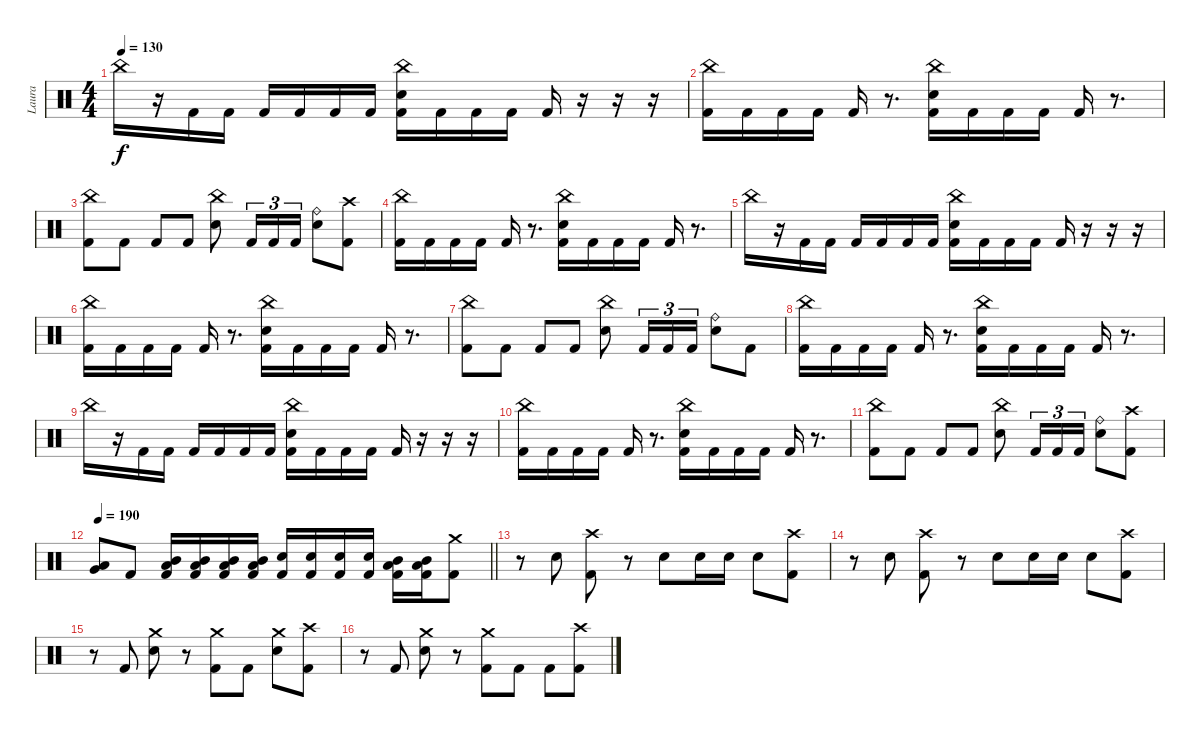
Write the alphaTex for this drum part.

\track ("Laura" "Laura") {instrument percussion}
\staff {score}
\articulation defaults
\ts (4 4)
\tempo 130
\clef neutral
\ks c "China (hit)".16{dy f}
r.16 "Kick (hit) 2".16 "Kick (hit) 2".16 "Kick (hit) 2".16 "Kick (hit) 2".16 "Kick (hit) 2".16 "Kick (hit) 2".16 ("China (hit)" "Electric Snare (hit)" "Kick (hit) 2").16 "Kick (hit) 2".16 "Kick (hit) 2".16 "Kick (hit) 2".16 "Kick (hit) 2".16 r.16 r.16 r.16 |
("China (hit)" "Kick (hit) 2").16 "Kick (hit) 2".16 "Kick (hit) 2".16 "Kick (hit) 2".16 "Kick (hit) 2".16 r.8{d} ("China (hit)" "Electric Snare (hit)" "Kick (hit) 2").16 "Kick (hit) 2".16 "Kick (hit) 2".16 "Kick (hit) 2".16 "Kick (hit) 2".16 r.8{d} |
("China (hit)" "Kick (hit) 2").8 "Kick (hit) 2".8 "Kick (hit) 2".8 "Kick (hit) 2".8 ("China (hit)" "Electric Snare (hit)").8 "Kick (hit) 2".16{tu (3 2)} "Kick (hit) 2".16{tu (3 2)} "Kick (hit) 2".16{tu (3 2)} ("Ride (bell)" "Electric Snare (hit)").8 ("Crash high (hit)" "Kick (hit) 2").8 |
("China (hit)" "Kick (hit) 2").16 "Kick (hit) 2".16 "Kick (hit) 2".16 "Kick (hit) 2".16 "Kick (hit) 2".16 r.8{d} ("China (hit)" "Electric Snare (hit)" "Kick (hit) 2").16 "Kick (hit) 2".16 "Kick (hit) 2".16 "Kick (hit) 2".16 "Kick (hit) 2".16 r.8{d} |
"China (hit)".16 r.16 "Kick (hit) 2".16 "Kick (hit) 2".16 "Kick (hit) 2".16 "Kick (hit) 2".16 "Kick (hit) 2".16 "Kick (hit) 2".16 ("China (hit)" "Electric Snare (hit)" "Kick (hit) 2").16 "Kick (hit) 2".16 "Kick (hit) 2".16 "Kick (hit) 2".16 "Kick (hit) 2".16 r.16 r.16 r.16 |
("China (hit)" "Kick (hit) 2").16 "Kick (hit) 2".16 "Kick (hit) 2".16 "Kick (hit) 2".16 "Kick (hit) 2".16 r.8{d} ("China (hit)" "Electric Snare (hit)" "Kick (hit) 2").16 "Kick (hit) 2".16 "Kick (hit) 2".16 "Kick (hit) 2".16 "Kick (hit) 2".16 r.8{d} |
("China (hit)" "Kick (hit) 2").8 "Kick (hit) 2".8 "Kick (hit) 2".8 "Kick (hit) 2".8 ("China (hit)" "Electric Snare (hit)").8 "Kick (hit) 2".16{tu (3 2)} "Kick (hit) 2".16{tu (3 2)} "Kick (hit) 2".16{tu (3 2)} ("Ride (bell)" "Electric Snare (hit)").8 "Kick (hit) 2".8 |
("China (hit)" "Kick (hit) 2").16 "Kick (hit) 2".16 "Kick (hit) 2".16 "Kick (hit) 2".16 "Kick (hit) 2".16 r.8{d} ("China (hit)" "Electric Snare (hit)" "Kick (hit) 2").16 "Kick (hit) 2".16 "Kick (hit) 2".16 "Kick (hit) 2".16 "Kick (hit) 2".16 r.8{d} |
"China (hit)".16 r.16 "Kick (hit) 2".16 "Kick (hit) 2".16 "Kick (hit) 2".16 "Kick (hit) 2".16 "Kick (hit) 2".16 "Kick (hit) 2".16 ("China (hit)" "Electric Snare (hit)" "Kick (hit) 2").16 "Kick (hit) 2".16 "Kick (hit) 2".16 "Kick (hit) 2".16 "Kick (hit) 2".16 r.16 r.16 r.16 |
("China (hit)" "Kick (hit) 2").16 "Kick (hit) 2".16 "Kick (hit) 2".16 "Kick (hit) 2".16 "Kick (hit) 2".16 r.8{d} ("China (hit)" "Electric Snare (hit)" "Kick (hit) 2").16 "Kick (hit) 2".16 "Kick (hit) 2".16 "Kick (hit) 2".16 "Kick (hit) 2".16 r.8{d} |
("China (hit)" "Kick (hit) 2").8 "Kick (hit) 2".8 "Kick (hit) 2".8 "Kick (hit) 2".8 ("China (hit)" "Electric Snare (hit)").8 "Kick (hit) 2".16{tu (3 2)} "Kick (hit) 2".16{tu (3 2)} "Kick (hit) 2".16{tu (3 2)} ("Ride (bell)" "Electric Snare (hit)").8 ("Crash high (hit)" "Kick (hit) 2").8 |
\tempo 190
\barLineRight lightlight
("Low Tom (hit)" "Very Low Tom (hit)").8 "Kick (hit) 2".8 ("Mid Tom (hit)" "Low Tom (hit)" "Kick (hit) 2").16 ("Mid Tom (hit)" "Low Tom (hit)" "Kick (hit) 2").16 ("Mid Tom (hit)" "Low Tom (hit)" "Kick (hit) 2").16 ("Mid Tom (hit)" "Low Tom (hit)" "Kick (hit) 2").16 ("Electric Snare (hit)" "Kick (hit) 2").16 ("Electric Snare (hit)" "Kick (hit) 2").16 ("Electric Snare (hit)" "Kick (hit) 2").16 ("Electric Snare (hit)" "Kick (hit) 2").16 ("Mid Tom (hit)" "Low Tom (hit)" "Kick (hit) 2").16 ("Mid Tom (hit)" "Low Tom (hit)" "Kick (hit) 2").16 ("Crash medium (hit)" "Kick (hit) 2").8 |
\section ("" "")
r.8 "Electric Snare (hit)".8 ("Crash high (hit)" "Kick (hit) 2").8 r.8 "Electric Snare (hit)".8 "Electric Snare (hit)".16 "Electric Snare (hit)".16 "Electric Snare (hit)".8 ("Crash high (hit)" "Kick (hit) 2").8 |
r.8 "Electric Snare (hit)".8 ("Crash high (hit)" "Kick (hit) 2").8 r.8 "Electric Snare (hit)".8 "Electric Snare (hit)".16 "Electric Snare (hit)".16 "Electric Snare (hit)".8 ("Crash high (hit)" "Kick (hit) 2").8 |
r.8 "Kick (hit) 2".8 ("Crash medium (hit)" "Electric Snare (hit)").8 r.8 ("Crash medium (hit)" "Kick (hit) 2").8 "Kick (hit) 2".8 ("Crash medium (hit)" "Electric Snare (hit)").8 ("Crash high (hit)" "Kick (hit) 2").8 |
r.8 "Kick (hit) 2".8 ("Crash medium (hit)" "Electric Snare (hit)").8 r.8 ("Crash medium (hit)" "Kick (hit) 2").8 "Kick (hit) 2".8 "Kick (hit) 2".8 ("Crash high (hit)" "Kick (hit) 2").8
